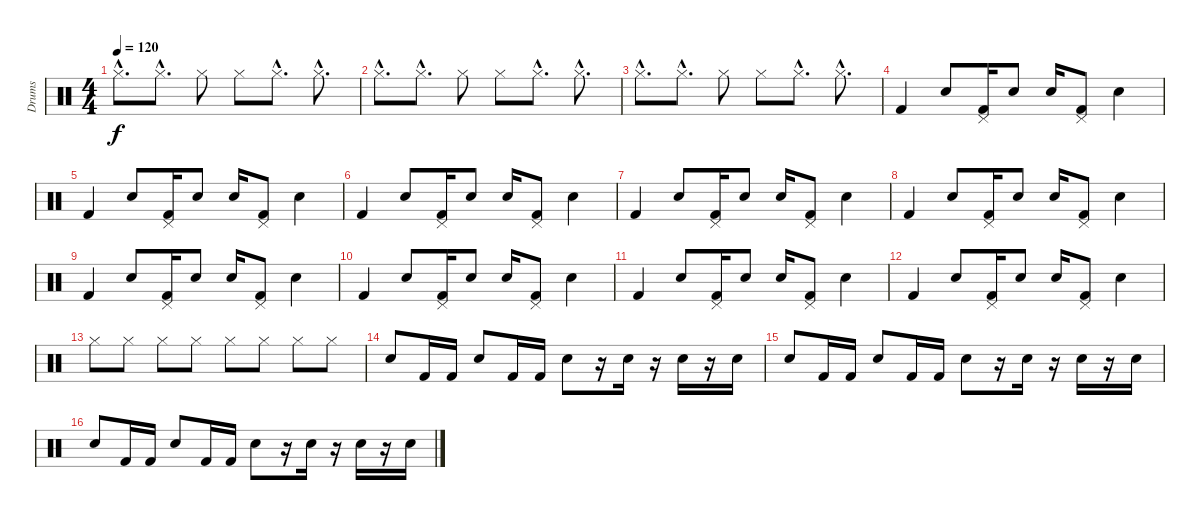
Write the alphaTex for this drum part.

\track ("Drums" "Drums") {instrument percussion}
\staff {score}
\articulation defaults
\ts (4 4)
\tempo 120
\clef neutral
\ks c "Hi-Hat (closed)"{hac}.8{d dy f} "Hi-Hat (closed)"{hac}.8{d} "Hi-Hat (closed)".8 "Hi-Hat (closed)".8 "Hi-Hat (closed)"{hac}.8{d} "Hi-Hat (closed)"{hac}.8{d}
|
"Hi-Hat (closed)"{hac}.8{d} "Hi-Hat (closed)"{hac}.8{d} "Hi-Hat (closed)".8 "Hi-Hat (closed)".8 "Hi-Hat (closed)"{hac}.8{d} "Hi-Hat (closed)"{hac}.8{d} |
"Hi-Hat (closed)"{hac}.8{d} "Hi-Hat (closed)"{hac}.8{d} "Hi-Hat (closed)".8 "Hi-Hat (closed)".8 "Hi-Hat (closed)"{hac}.8{d} "Hi-Hat (closed)"{hac}.8{d} |
"Kick (hit) 2".4 "Snare (hit) 2".8 ("Pedal Hi-Hat (hit)" "Kick (hit) 2").16 "Snare (hit) 2".8 "Snare (hit) 2".16 ("Pedal Hi-Hat (hit)" "Kick (hit) 2").8 "Snare (hit) 2".4 |
"Kick (hit) 2".4 "Snare (hit) 2".8 ("Pedal Hi-Hat (hit)" "Kick (hit) 2").16 "Snare (hit) 2".8 "Snare (hit) 2".16 ("Pedal Hi-Hat (hit)" "Kick (hit) 2").8 "Snare (hit) 2".4 |
"Kick (hit) 2".4 "Snare (hit) 2".8 ("Pedal Hi-Hat (hit)" "Kick (hit) 2").16 "Snare (hit) 2".8 "Snare (hit) 2".16 ("Pedal Hi-Hat (hit)" "Kick (hit) 2").8 "Snare (hit) 2".4 |
"Kick (hit) 2".4 "Snare (hit) 2".8 ("Pedal Hi-Hat (hit)" "Kick (hit) 2").16 "Snare (hit) 2".8 "Snare (hit) 2".16 ("Pedal Hi-Hat (hit)" "Kick (hit) 2").8 "Snare (hit) 2".4 |
"Kick (hit) 2".4 "Snare (hit) 2".8 ("Pedal Hi-Hat (hit)" "Kick (hit) 2").16 "Snare (hit) 2".8 "Snare (hit) 2".16 ("Pedal Hi-Hat (hit)" "Kick (hit) 2").8 "Snare (hit) 2".4 |
"Kick (hit) 2".4 "Snare (hit) 2".8 ("Pedal Hi-Hat (hit)" "Kick (hit) 2").16 "Snare (hit) 2".8 "Snare (hit) 2".16 ("Pedal Hi-Hat (hit)" "Kick (hit) 2").8 "Snare (hit) 2".4 |
"Kick (hit) 2".4 "Snare (hit) 2".8 ("Pedal Hi-Hat (hit)" "Kick (hit) 2").16 "Snare (hit) 2".8 "Snare (hit) 2".16 ("Pedal Hi-Hat (hit)" "Kick (hit) 2").8 "Snare (hit) 2".4 |
"Kick (hit) 2".4 "Snare (hit) 2".8 ("Pedal Hi-Hat (hit)" "Kick (hit) 2").16 "Snare (hit) 2".8 "Snare (hit) 2".16 ("Pedal Hi-Hat (hit)" "Kick (hit) 2").8 "Snare (hit) 2".4 |
"Kick (hit) 2".4 "Snare (hit) 2".8 ("Pedal Hi-Hat (hit)" "Kick (hit) 2").16 "Snare (hit) 2".8 "Snare (hit) 2".16 ("Pedal Hi-Hat (hit)" "Kick (hit) 2").8 "Snare (hit) 2".4 |
"Hi-Hat (closed)".8 "Hi-Hat (closed)".8 "Hi-Hat (closed)".8 "Hi-Hat (closed)".8 "Hi-Hat (closed)".8 "Hi-Hat (closed)".8 "Hi-Hat (closed)".8 "Hi-Hat (closed)".8 |
"Snare (hit) 2".8 "Kick (hit) 2".16 "Kick (hit) 2".16 "Snare (hit) 2".8 "Kick (hit) 2".16 "Kick (hit) 2".16 "Snare (hit) 2".8 r.16 "Snare (hit) 2".16 r.16 "Snare (hit) 2".16 r.16 "Snare (hit) 2".16 |
"Snare (hit) 2".8 "Kick (hit) 2".16 "Kick (hit) 2".16 "Snare (hit) 2".8 "Kick (hit) 2".16 "Kick (hit) 2".16 "Snare (hit) 2".8 r.16 "Snare (hit) 2".16 r.16 "Snare (hit) 2".16 r.16 "Snare (hit) 2".16 |
"Snare (hit) 2".8 "Kick (hit) 2".16 "Kick (hit) 2".16 "Snare (hit) 2".8 "Kick (hit) 2".16 "Kick (hit) 2".16 "Snare (hit) 2".8 r.16 "Snare (hit) 2".16 r.16 "Snare (hit) 2".16 r.16 "Snare (hit) 2".16
